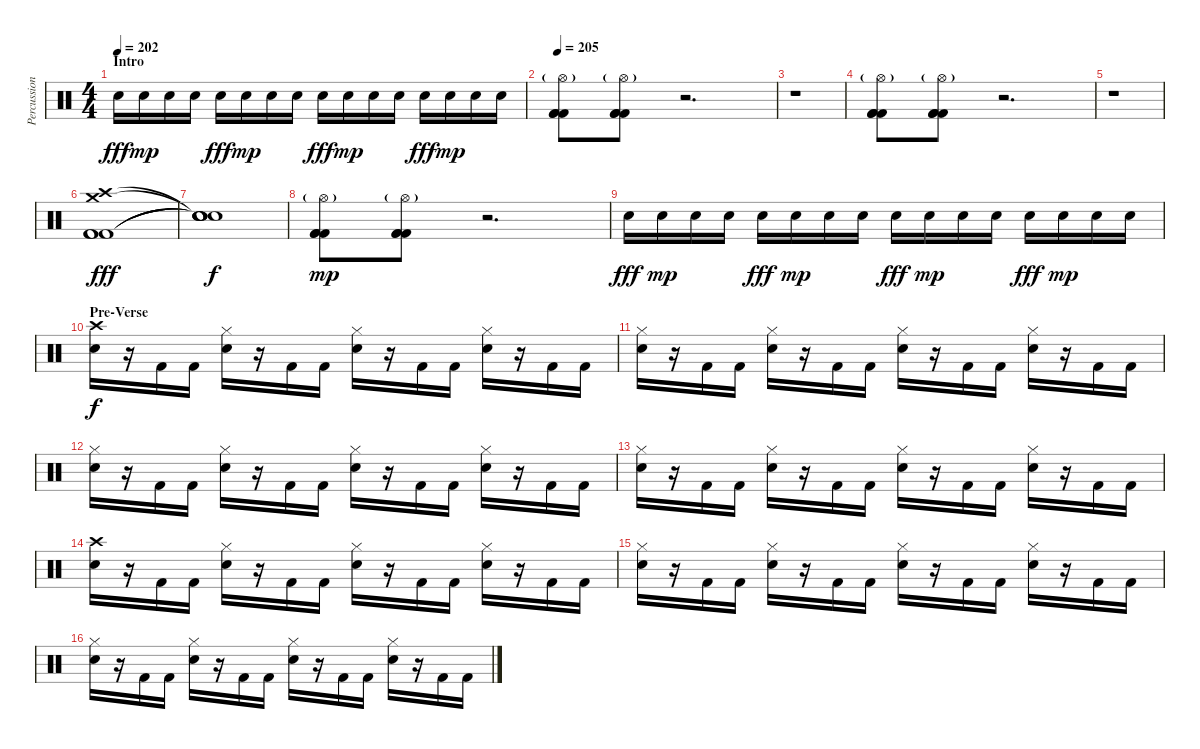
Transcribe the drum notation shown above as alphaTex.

\track ("Percussion" "Percussion") {instrument percussion}
\staff {score}
\articulation defaults
\ts (4 4)
\section ("" "Intro")
\tempo 202
\tempo 220
\tempo 202
\clef neutral
\ks c "Electric Snare (hit)".16{dy fff} "Electric Snare (hit)".16{dy mp} "Electric Snare (hit)".16 "Electric Snare (hit)".16 "Electric Snare (hit)".16{dy fff} "Electric Snare (hit)".16{dy mp} "Electric Snare (hit)".16 "Electric Snare (hit)".16 "Electric Snare (hit)".16{dy fff} "Electric Snare (hit)".16{dy mp} "Electric Snare (hit)".16 "Electric Snare (hit)".16 "Electric Snare (hit)".16{dy fff} "Electric Snare (hit)".16{dy mp} "Electric Snare (hit)".16 "Electric Snare (hit)".16
|
\tempo 202
\tempo 205
("Hi-Hat (open)"{g} "Kick (hit) 2" "Kick (hit) 2" "Kick (hit) 2").8 ("Hi-Hat (open)"{g} "Kick (hit) 2" "Kick (hit) 2" "Kick (hit) 2").8 r.2{d} |
r.1 |
("Hi-Hat (open)"{g} "Kick (hit) 2" "Kick (hit) 2" "Kick (hit) 2").8 ("Hi-Hat (open)"{g} "Kick (hit) 2" "Kick (hit) 2" "Kick (hit) 2").8 r.2{d} |
r.1 |
("Crash high (hit)" "Crash medium (hit)" "Kick (hit) 2" "Kick (hit) 2" "Kick (hit) 2").1{dy fff} |
("Snare (hit)"{t} "Snare (hit)"{t} "Snare (hit)"{t} "Snare (hit)"{t} "Snare (hit)"{t}).1{dy f} |
("Hi-Hat (open)"{g} "Kick (hit) 2" "Kick (hit) 2" "Kick (hit) 2").8{dy mp} ("Hi-Hat (open)"{g} "Kick (hit) 2" "Kick (hit) 2" "Kick (hit) 2").8 r.2{d} |
"Electric Snare (hit)".16{dy fff} "Electric Snare (hit)".16{dy mp} "Electric Snare (hit)".16 "Electric Snare (hit)".16 "Electric Snare (hit)".16{dy fff} "Electric Snare (hit)".16{dy mp} "Electric Snare (hit)".16 "Electric Snare (hit)".16 "Electric Snare (hit)".16{dy fff} "Electric Snare (hit)".16{dy mp} "Electric Snare (hit)".16 "Electric Snare (hit)".16 "Electric Snare (hit)".16{dy fff} "Electric Snare (hit)".16{dy mp} "Electric Snare (hit)".16 "Electric Snare (hit)".16 |
\section ("" "Pre-Verse")
("Crash high (hit)" "Electric Snare (hit)").16{dy f} r.16 "Kick (hit) 2".16 "Kick (hit) 2".16 ("Hi-Hat (closed)" "Electric Snare (hit)").16 r.16 "Kick (hit) 2".16 "Kick (hit) 2".16 ("Hi-Hat (closed)" "Electric Snare (hit)").16 r.16 "Kick (hit) 2".16 "Kick (hit) 2".16 ("Hi-Hat (closed)" "Electric Snare (hit)").16 r.16 "Kick (hit) 2".16 "Kick (hit) 2".16 |
("Hi-Hat (closed)" "Electric Snare (hit)").16 r.16 "Kick (hit) 2".16 "Kick (hit) 2".16 ("Hi-Hat (closed)" "Electric Snare (hit)").16 r.16 "Kick (hit) 2".16 "Kick (hit) 2".16 ("Hi-Hat (closed)" "Electric Snare (hit)").16 r.16 "Kick (hit) 2".16 "Kick (hit) 2".16 ("Hi-Hat (closed)" "Electric Snare (hit)").16 r.16 "Kick (hit) 2".16 "Kick (hit) 2".16 |
("Hi-Hat (closed)" "Electric Snare (hit)").16 r.16 "Kick (hit) 2".16 "Kick (hit) 2".16 ("Hi-Hat (closed)" "Electric Snare (hit)").16 r.16 "Kick (hit) 2".16 "Kick (hit) 2".16 ("Hi-Hat (closed)" "Electric Snare (hit)").16 r.16 "Kick (hit) 2".16 "Kick (hit) 2".16 ("Hi-Hat (closed)" "Electric Snare (hit)").16 r.16 "Kick (hit) 2".16 "Kick (hit) 2".16 |
("Hi-Hat (closed)" "Electric Snare (hit)").16 r.16 "Kick (hit) 2".16 "Kick (hit) 2".16 ("Hi-Hat (closed)" "Electric Snare (hit)").16 r.16 "Kick (hit) 2".16 "Kick (hit) 2".16 ("Hi-Hat (closed)" "Electric Snare (hit)").16 r.16 "Kick (hit) 2".16 "Kick (hit) 2".16 ("Hi-Hat (closed)" "Electric Snare (hit)").16 r.16 "Kick (hit) 2".16 "Kick (hit) 2".16 |
("Crash high (hit)" "Electric Snare (hit)").16 r.16 "Kick (hit) 2".16 "Kick (hit) 2".16 ("Hi-Hat (closed)" "Electric Snare (hit)").16 r.16 "Kick (hit) 2".16 "Kick (hit) 2".16 ("Hi-Hat (closed)" "Electric Snare (hit)").16 r.16 "Kick (hit) 2".16 "Kick (hit) 2".16 ("Hi-Hat (closed)" "Electric Snare (hit)").16 r.16 "Kick (hit) 2".16 "Kick (hit) 2".16 |
("Hi-Hat (closed)" "Electric Snare (hit)").16 r.16 "Kick (hit) 2".16 "Kick (hit) 2".16 ("Hi-Hat (closed)" "Electric Snare (hit)").16 r.16 "Kick (hit) 2".16 "Kick (hit) 2".16 ("Hi-Hat (closed)" "Electric Snare (hit)").16 r.16 "Kick (hit) 2".16 "Kick (hit) 2".16 ("Hi-Hat (closed)" "Electric Snare (hit)").16 r.16 "Kick (hit) 2".16 "Kick (hit) 2".16 |
("Hi-Hat (closed)" "Electric Snare (hit)").16 r.16 "Kick (hit) 2".16 "Kick (hit) 2".16 ("Hi-Hat (closed)" "Electric Snare (hit)").16 r.16 "Kick (hit) 2".16 "Kick (hit) 2".16 ("Hi-Hat (closed)" "Electric Snare (hit)").16 r.16 "Kick (hit) 2".16 "Kick (hit) 2".16 ("Hi-Hat (closed)" "Electric Snare (hit)").16 r.16 "Kick (hit) 2".16 "Kick (hit) 2".16
